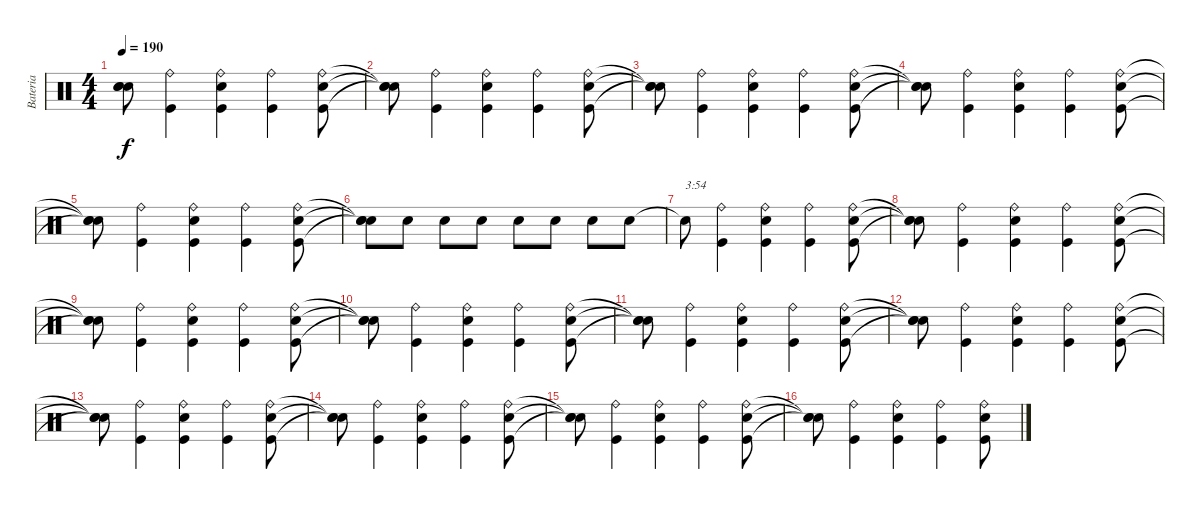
\track ("Bateria" "Bateria") {instrument percussion}
\staff {score}
\articulation defaults
\ts (4 4)
\tempo 190
\clef neutral
\ks c
("Snare (hit)"{t} "Snare (hit)"{t} "Snare (hit)"{t}).8{dy f} ("Kick (hit)" "Ride (bell)").4 ("Kick (hit)" "Snare (hit) 2" "Ride (bell)").4 ("Kick (hit)" "Ride (bell)").4 ("Kick (hit)" "Snare (hit) 2" "Ride (bell)").8 |
("Snare (hit)"{t} "Snare (hit)"{t} "Snare (hit)"{t}).8 ("Kick (hit)" "Ride (bell)").4 ("Kick (hit)" "Snare (hit) 2" "Ride (bell)").4 ("Kick (hit)" "Ride (bell)").4 ("Kick (hit)" "Snare (hit) 2" "Ride (bell)").8 |
("Snare (hit)"{t} "Snare (hit)"{t} "Snare (hit)"{t}).8 ("Kick (hit)" "Ride (bell)").4 ("Kick (hit)" "Snare (hit) 2" "Ride (bell)").4 ("Kick (hit)" "Ride (bell)").4 ("Kick (hit)" "Snare (hit) 2" "Ride (bell)").8 |
("Snare (hit)"{t} "Snare (hit)"{t} "Snare (hit)"{t}).8 ("Kick (hit)" "Ride (bell)").4 ("Kick (hit)" "Snare (hit) 2" "Ride (bell)").4 ("Kick (hit)" "Ride (bell)").4 ("Kick (hit)" "Snare (hit) 2" "Ride (bell)").8 |
("Snare (hit)"{t} "Snare (hit)"{t} "Snare (hit)"{t}).8 ("Kick (hit)" "Ride (bell)").4 ("Kick (hit)" "Snare (hit) 2" "Ride (bell)").4 ("Kick (hit)" "Ride (bell)").4 ("Kick (hit)" "Snare (hit) 2" "Ride (bell)").8 |
("Snare (hit)"{t} "Snare (hit)"{t} "Snare (hit)"{t}).8 "Snare (hit) 2".8 "Snare (hit) 2".8 "Snare (hit) 2".8 "Snare (hit) 2".8 "Snare (hit) 2".8 "Snare (hit) 2".8 "Snare (hit) 2".8 |
"Snare (hit)"{t}.8{txt "3:54"} ("Kick (hit)" "Ride (bell)").4 ("Kick (hit)" "Snare (hit) 2" "Ride (bell)").4 ("Kick (hit)" "Ride (bell)").4 ("Kick (hit)" "Snare (hit) 2" "Ride (bell)").8 |
("Snare (hit)"{t} "Snare (hit)"{t} "Snare (hit)"{t}).8 ("Kick (hit)" "Ride (bell)").4 ("Kick (hit)" "Snare (hit) 2" "Ride (bell)").4 ("Kick (hit)" "Ride (bell)").4 ("Kick (hit)" "Snare (hit) 2" "Ride (bell)").8 |
("Snare (hit)"{t} "Snare (hit)"{t} "Snare (hit)"{t}).8 ("Kick (hit)" "Ride (bell)").4 ("Kick (hit)" "Snare (hit) 2" "Ride (bell)").4 ("Kick (hit)" "Ride (bell)").4 ("Kick (hit)" "Snare (hit) 2" "Ride (bell)").8 |
("Snare (hit)"{t} "Snare (hit)"{t} "Snare (hit)"{t}).8 ("Kick (hit)" "Ride (bell)").4 ("Kick (hit)" "Snare (hit) 2" "Ride (bell)").4 ("Kick (hit)" "Ride (bell)").4 ("Kick (hit)" "Snare (hit) 2" "Ride (bell)").8 |
("Snare (hit)"{t} "Snare (hit)"{t} "Snare (hit)"{t}).8 ("Kick (hit)" "Ride (bell)").4 ("Kick (hit)" "Snare (hit) 2" "Ride (bell)").4 ("Kick (hit)" "Ride (bell)").4 ("Kick (hit)" "Snare (hit) 2" "Ride (bell)").8 |
("Snare (hit)"{t} "Snare (hit)"{t} "Snare (hit)"{t}).8 ("Kick (hit)" "Ride (bell)").4 ("Kick (hit)" "Snare (hit) 2" "Ride (bell)").4 ("Kick (hit)" "Ride (bell)").4 ("Kick (hit)" "Snare (hit) 2" "Ride (bell)").8 |
("Snare (hit)"{t} "Snare (hit)"{t} "Snare (hit)"{t}).8 ("Kick (hit)" "Ride (bell)").4 ("Kick (hit)" "Snare (hit) 2" "Ride (bell)").4 ("Kick (hit)" "Ride (bell)").4 ("Kick (hit)" "Snare (hit) 2" "Ride (bell)").8 |
("Snare (hit)"{t} "Snare (hit)"{t} "Snare (hit)"{t}).8 ("Kick (hit)" "Ride (bell)").4 ("Kick (hit)" "Snare (hit) 2" "Ride (bell)").4 ("Kick (hit)" "Ride (bell)").4 ("Kick (hit)" "Snare (hit) 2" "Ride (bell)").8 |
("Snare (hit)"{t} "Snare (hit)"{t} "Snare (hit)"{t}).8 ("Kick (hit)" "Ride (bell)").4 ("Kick (hit)" "Snare (hit) 2" "Ride (bell)").4 ("Kick (hit)" "Ride (bell)").4 ("Kick (hit)" "Snare (hit) 2" "Ride (bell)").8 |
("Snare (hit)"{t} "Snare (hit)"{t} "Snare (hit)"{t}).8 ("Kick (hit)" "Ride (bell)").4 ("Kick (hit)" "Snare (hit) 2" "Ride (bell)").4 ("Kick (hit)" "Ride (bell)").4 ("Kick (hit)" "Snare (hit) 2" "Ride (bell)").8
